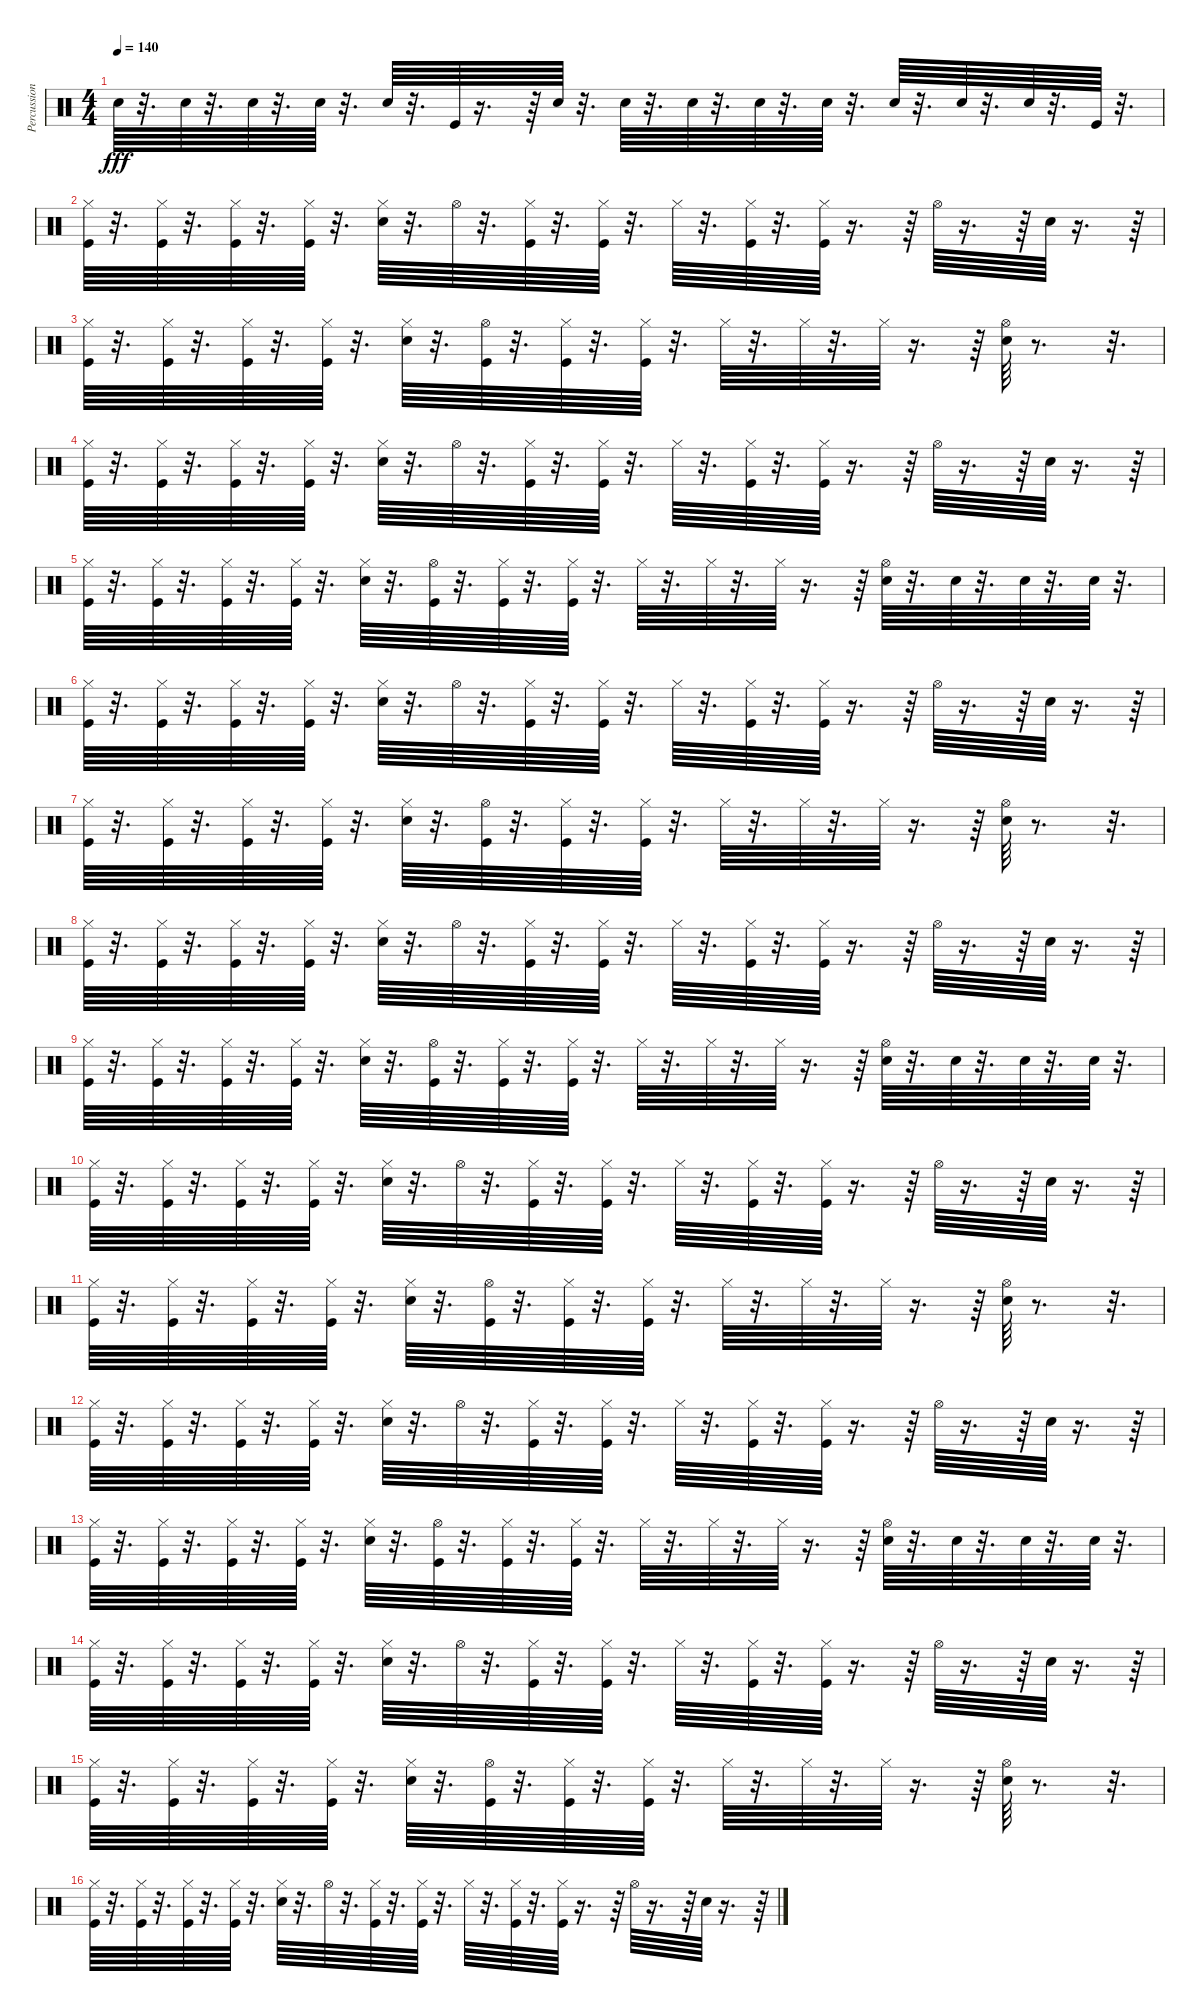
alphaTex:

\track ("Percussion [Room Kit]" "Percussion") {instrument percussion}
\staff {score}
\articulation defaults
\ts (4 4)
\tempo 140
\clef neutral
\ks c "Electric Snare (hit)".64{dy fff}
r.32{d} "Electric Snare (hit)".64 r.32{d} "Electric Snare (hit)".64 r.32{d} "Electric Snare (hit)".64 r.32{d} "Electric Snare (hit)".64 r.32{d} "Kick (hit)".64 r.16{d} r.64 "Electric Snare (hit)".64 r.32{d} "Electric Snare (hit)".64 r.32{d} "Electric Snare (hit)".64 r.32{d} "Electric Snare (hit)".64 r.32{d} "Electric Snare (hit)".64 r.32{d} "Electric Snare (hit)".64 r.32{d} "Electric Snare (hit)".64 r.32{d} "Electric Snare (hit)".64 r.32{d} "Kick (hit)".64 r.32{d} |
("Kick (hit)" "Hi-Hat (closed)").64 r.32{d} ("Kick (hit)" "Hi-Hat (closed)").64 r.32{d} ("Kick (hit)" "Hi-Hat (closed)").64 r.32{d} ("Kick (hit)" "Hi-Hat (closed)").64 r.32{d} ("Electric Snare (hit)" "Hi-Hat (closed)").64 r.32{d} "Hi-Hat (open)".64 r.32{d} ("Kick (hit)" "Hi-Hat (closed)").64 r.32{d} ("Kick (hit)" "Hi-Hat (closed)").64 r.32{d} "Hi-Hat (closed)".64 r.32{d} ("Kick (hit)" "Hi-Hat (closed)").64 r.32{d} ("Kick (hit)" "Hi-Hat (closed)").64 r.16{d} r.64 "Hi-Hat (open)".64 r.16{d} r.64 "Electric Snare (hit)".64 r.16{d} r.64 |
("Kick (hit)" "Hi-Hat (closed)").64 r.32{d} ("Kick (hit)" "Hi-Hat (closed)").64 r.32{d} ("Kick (hit)" "Hi-Hat (closed)").64 r.32{d} ("Kick (hit)" "Hi-Hat (closed)").64 r.32{d} ("Electric Snare (hit)" "Hi-Hat (closed)").64 r.32{d} ("Kick (hit)" "Hi-Hat (open)").64 r.32{d} ("Kick (hit)" "Hi-Hat (closed)").64 r.32{d} ("Kick (hit)" "Hi-Hat (closed)").64 r.32{d} "Hi-Hat (closed)".64 r.32{d} "Hi-Hat (closed)".64 r.32{d} "Hi-Hat (closed)".64 r.16{d} r.64 ("Electric Snare (hit)" "Hi-Hat (open)").64 r.8{d} r.32{d} |
("Kick (hit)" "Hi-Hat (closed)").64 r.32{d} ("Kick (hit)" "Hi-Hat (closed)").64 r.32{d} ("Kick (hit)" "Hi-Hat (closed)").64 r.32{d} ("Kick (hit)" "Hi-Hat (closed)").64 r.32{d} ("Electric Snare (hit)" "Hi-Hat (closed)").64 r.32{d} "Hi-Hat (open)".64 r.32{d} ("Kick (hit)" "Hi-Hat (closed)").64 r.32{d} ("Kick (hit)" "Hi-Hat (closed)").64 r.32{d} "Hi-Hat (closed)".64 r.32{d} ("Kick (hit)" "Hi-Hat (closed)").64 r.32{d} ("Kick (hit)" "Hi-Hat (closed)").64 r.16{d} r.64 "Hi-Hat (open)".64 r.16{d} r.64 "Electric Snare (hit)".64 r.16{d} r.64 |
("Kick (hit)" "Hi-Hat (closed)").64 r.32{d} ("Kick (hit)" "Hi-Hat (closed)").64 r.32{d} ("Kick (hit)" "Hi-Hat (closed)").64 r.32{d} ("Kick (hit)" "Hi-Hat (closed)").64 r.32{d} ("Electric Snare (hit)" "Hi-Hat (closed)").64 r.32{d} ("Kick (hit)" "Hi-Hat (open)").64 r.32{d} ("Kick (hit)" "Hi-Hat (closed)").64 r.32{d} ("Kick (hit)" "Hi-Hat (closed)").64 r.32{d} "Hi-Hat (closed)".64 r.32{d} "Hi-Hat (closed)".64 r.32{d} "Hi-Hat (closed)".64 r.16{d} r.64 ("Electric Snare (hit)" "Hi-Hat (open)").64 r.32{d} "Electric Snare (hit)".64 r.32{d} "Electric Snare (hit)".64 r.32{d} "Electric Snare (hit)".64 r.32{d} |
("Kick (hit)" "Hi-Hat (closed)").64 r.32{d} ("Kick (hit)" "Hi-Hat (closed)").64 r.32{d} ("Kick (hit)" "Hi-Hat (closed)").64 r.32{d} ("Kick (hit)" "Hi-Hat (closed)").64 r.32{d} ("Electric Snare (hit)" "Hi-Hat (closed)").64 r.32{d} "Hi-Hat (open)".64 r.32{d} ("Kick (hit)" "Hi-Hat (closed)").64 r.32{d} ("Kick (hit)" "Hi-Hat (closed)").64 r.32{d} "Hi-Hat (closed)".64 r.32{d} ("Kick (hit)" "Hi-Hat (closed)").64 r.32{d} ("Kick (hit)" "Hi-Hat (closed)").64 r.16{d} r.64 "Hi-Hat (open)".64 r.16{d} r.64 "Electric Snare (hit)".64 r.16{d} r.64 |
("Kick (hit)" "Hi-Hat (closed)").64 r.32{d} ("Kick (hit)" "Hi-Hat (closed)").64 r.32{d} ("Kick (hit)" "Hi-Hat (closed)").64 r.32{d} ("Kick (hit)" "Hi-Hat (closed)").64 r.32{d} ("Electric Snare (hit)" "Hi-Hat (closed)").64 r.32{d} ("Kick (hit)" "Hi-Hat (open)").64 r.32{d} ("Kick (hit)" "Hi-Hat (closed)").64 r.32{d} ("Kick (hit)" "Hi-Hat (closed)").64 r.32{d} "Hi-Hat (closed)".64 r.32{d} "Hi-Hat (closed)".64 r.32{d} "Hi-Hat (closed)".64 r.16{d} r.64 ("Electric Snare (hit)" "Hi-Hat (open)").64 r.8{d} r.32{d} |
("Kick (hit)" "Hi-Hat (closed)").64 r.32{d} ("Kick (hit)" "Hi-Hat (closed)").64 r.32{d} ("Kick (hit)" "Hi-Hat (closed)").64 r.32{d} ("Kick (hit)" "Hi-Hat (closed)").64 r.32{d} ("Electric Snare (hit)" "Hi-Hat (closed)").64 r.32{d} "Hi-Hat (open)".64 r.32{d} ("Kick (hit)" "Hi-Hat (closed)").64 r.32{d} ("Kick (hit)" "Hi-Hat (closed)").64 r.32{d} "Hi-Hat (closed)".64 r.32{d} ("Kick (hit)" "Hi-Hat (closed)").64 r.32{d} ("Kick (hit)" "Hi-Hat (closed)").64 r.16{d} r.64 "Hi-Hat (open)".64 r.16{d} r.64 "Electric Snare (hit)".64 r.16{d} r.64 |
("Kick (hit)" "Hi-Hat (closed)").64 r.32{d} ("Kick (hit)" "Hi-Hat (closed)").64 r.32{d} ("Kick (hit)" "Hi-Hat (closed)").64 r.32{d} ("Kick (hit)" "Hi-Hat (closed)").64 r.32{d} ("Electric Snare (hit)" "Hi-Hat (closed)").64 r.32{d} ("Kick (hit)" "Hi-Hat (open)").64 r.32{d} ("Kick (hit)" "Hi-Hat (closed)").64 r.32{d} ("Kick (hit)" "Hi-Hat (closed)").64 r.32{d} "Hi-Hat (closed)".64 r.32{d} "Hi-Hat (closed)".64 r.32{d} "Hi-Hat (closed)".64 r.16{d} r.64 ("Electric Snare (hit)" "Hi-Hat (open)").64 r.32{d} "Electric Snare (hit)".64 r.32{d} "Electric Snare (hit)".64 r.32{d} "Electric Snare (hit)".64 r.32{d} |
("Kick (hit)" "Hi-Hat (closed)").64 r.32{d} ("Kick (hit)" "Hi-Hat (closed)").64 r.32{d} ("Kick (hit)" "Hi-Hat (closed)").64 r.32{d} ("Kick (hit)" "Hi-Hat (closed)").64 r.32{d} ("Electric Snare (hit)" "Hi-Hat (closed)").64 r.32{d} "Hi-Hat (open)".64 r.32{d} ("Kick (hit)" "Hi-Hat (closed)").64 r.32{d} ("Kick (hit)" "Hi-Hat (closed)").64 r.32{d} "Hi-Hat (closed)".64 r.32{d} ("Kick (hit)" "Hi-Hat (closed)").64 r.32{d} ("Kick (hit)" "Hi-Hat (closed)").64 r.16{d} r.64 "Hi-Hat (open)".64 r.16{d} r.64 "Electric Snare (hit)".64 r.16{d} r.64 |
("Kick (hit)" "Hi-Hat (closed)").64 r.32{d} ("Kick (hit)" "Hi-Hat (closed)").64 r.32{d} ("Kick (hit)" "Hi-Hat (closed)").64 r.32{d} ("Kick (hit)" "Hi-Hat (closed)").64 r.32{d} ("Electric Snare (hit)" "Hi-Hat (closed)").64 r.32{d} ("Kick (hit)" "Hi-Hat (open)").64 r.32{d} ("Kick (hit)" "Hi-Hat (closed)").64 r.32{d} ("Kick (hit)" "Hi-Hat (closed)").64 r.32{d} "Hi-Hat (closed)".64 r.32{d} "Hi-Hat (closed)".64 r.32{d} "Hi-Hat (closed)".64 r.16{d} r.64 ("Electric Snare (hit)" "Hi-Hat (open)").64 r.8{d} r.32{d} |
("Kick (hit)" "Hi-Hat (closed)").64 r.32{d} ("Kick (hit)" "Hi-Hat (closed)").64 r.32{d} ("Kick (hit)" "Hi-Hat (closed)").64 r.32{d} ("Kick (hit)" "Hi-Hat (closed)").64 r.32{d} ("Electric Snare (hit)" "Hi-Hat (closed)").64 r.32{d} "Hi-Hat (open)".64 r.32{d} ("Kick (hit)" "Hi-Hat (closed)").64 r.32{d} ("Kick (hit)" "Hi-Hat (closed)").64 r.32{d} "Hi-Hat (closed)".64 r.32{d} ("Kick (hit)" "Hi-Hat (closed)").64 r.32{d} ("Kick (hit)" "Hi-Hat (closed)").64 r.16{d} r.64 "Hi-Hat (open)".64 r.16{d} r.64 "Electric Snare (hit)".64 r.16{d} r.64 |
("Kick (hit)" "Hi-Hat (closed)").64 r.32{d} ("Kick (hit)" "Hi-Hat (closed)").64 r.32{d} ("Kick (hit)" "Hi-Hat (closed)").64 r.32{d} ("Kick (hit)" "Hi-Hat (closed)").64 r.32{d} ("Electric Snare (hit)" "Hi-Hat (closed)").64 r.32{d} ("Kick (hit)" "Hi-Hat (open)").64 r.32{d} ("Kick (hit)" "Hi-Hat (closed)").64 r.32{d} ("Kick (hit)" "Hi-Hat (closed)").64 r.32{d} "Hi-Hat (closed)".64 r.32{d} "Hi-Hat (closed)".64 r.32{d} "Hi-Hat (closed)".64 r.16{d} r.64 ("Electric Snare (hit)" "Hi-Hat (open)").64 r.32{d} "Electric Snare (hit)".64 r.32{d} "Electric Snare (hit)".64 r.32{d} "Electric Snare (hit)".64 r.32{d} |
("Kick (hit)" "Hi-Hat (closed)").64 r.32{d} ("Kick (hit)" "Hi-Hat (closed)").64 r.32{d} ("Kick (hit)" "Hi-Hat (closed)").64 r.32{d} ("Kick (hit)" "Hi-Hat (closed)").64 r.32{d} ("Electric Snare (hit)" "Hi-Hat (closed)").64 r.32{d} "Hi-Hat (open)".64 r.32{d} ("Kick (hit)" "Hi-Hat (closed)").64 r.32{d} ("Kick (hit)" "Hi-Hat (closed)").64 r.32{d} "Hi-Hat (closed)".64 r.32{d} ("Kick (hit)" "Hi-Hat (closed)").64 r.32{d} ("Kick (hit)" "Hi-Hat (closed)").64 r.16{d} r.64 "Hi-Hat (open)".64 r.16{d} r.64 "Electric Snare (hit)".64 r.16{d} r.64 |
("Kick (hit)" "Hi-Hat (closed)").64 r.32{d} ("Kick (hit)" "Hi-Hat (closed)").64 r.32{d} ("Kick (hit)" "Hi-Hat (closed)").64 r.32{d} ("Kick (hit)" "Hi-Hat (closed)").64 r.32{d} ("Electric Snare (hit)" "Hi-Hat (closed)").64 r.32{d} ("Kick (hit)" "Hi-Hat (open)").64 r.32{d} ("Kick (hit)" "Hi-Hat (closed)").64 r.32{d} ("Kick (hit)" "Hi-Hat (closed)").64 r.32{d} "Hi-Hat (closed)".64 r.32{d} "Hi-Hat (closed)".64 r.32{d} "Hi-Hat (closed)".64 r.16{d} r.64 ("Electric Snare (hit)" "Hi-Hat (open)").64 r.8{d} r.32{d} |
("Kick (hit)" "Hi-Hat (closed)").64 r.32{d} ("Kick (hit)" "Hi-Hat (closed)").64 r.32{d} ("Kick (hit)" "Hi-Hat (closed)").64 r.32{d} ("Kick (hit)" "Hi-Hat (closed)").64 r.32{d} ("Electric Snare (hit)" "Hi-Hat (closed)").64 r.32{d} "Hi-Hat (open)".64 r.32{d} ("Kick (hit)" "Hi-Hat (closed)").64 r.32{d} ("Kick (hit)" "Hi-Hat (closed)").64 r.32{d} "Hi-Hat (closed)".64 r.32{d} ("Kick (hit)" "Hi-Hat (closed)").64 r.32{d} ("Kick (hit)" "Hi-Hat (closed)").64 r.16{d} r.64 "Hi-Hat (open)".64 r.16{d} r.64 "Electric Snare (hit)".64 r.16{d} r.64
